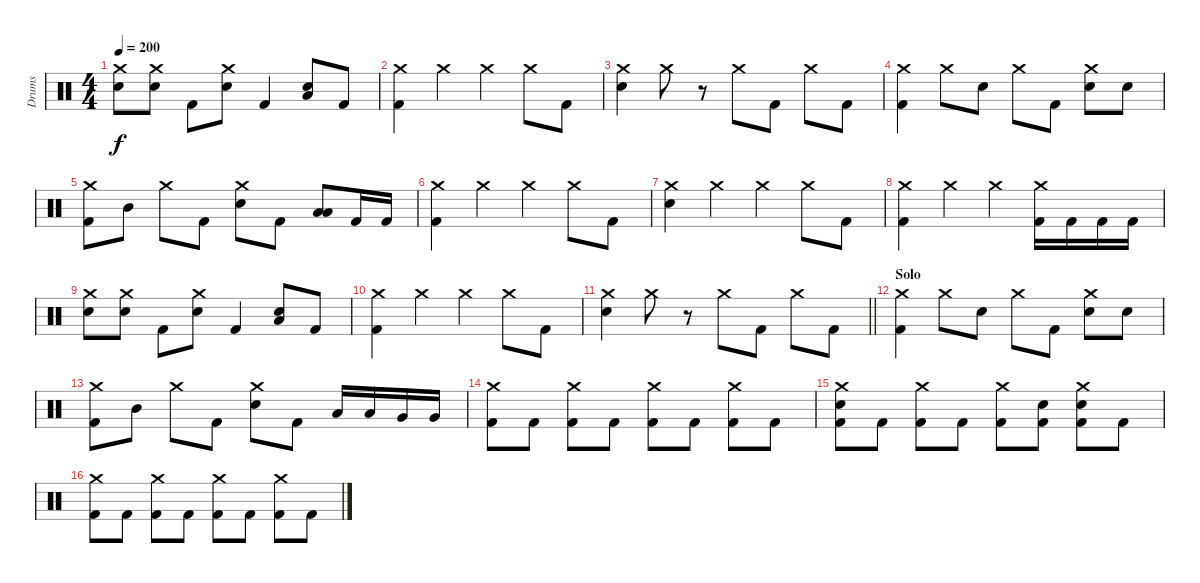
\track ("Drums" "Drums") {instrument percussion}
\staff {score}
\articulation defaults
\ts (4 4)
\tempo 200
\clef neutral
\ks c
("Crash medium (hit)" "Electric Snare (hit)").8{dy f} ("Crash medium (hit)" "Electric Snare (hit)").8 "Kick (hit) 2".8 ("Crash medium (hit)" "Electric Snare (hit)").8 "Kick (hit) 2".4 ("Low Floor Tom (hit)" "Electric Snare (hit)").8 "Kick (hit) 2".8 |
("Crash medium (hit)" "Kick (hit) 2").4 "Crash medium (hit)".4 "Crash medium (hit)".4 "Crash medium (hit)".8 "Kick (hit) 2".8 |
("Crash medium (hit)" "Electric Snare (hit)").4 "Crash medium (hit)".8 r.8 "Crash medium (hit)".8 "Kick (hit) 2".8 "Crash medium (hit)".8 "Kick (hit) 2".8 |
("Crash medium (hit)" "Kick (hit) 2").4 "Crash medium (hit)".8 "Electric Snare (hit)".8 "Crash medium (hit)".8 "Kick (hit) 2".8 ("Crash medium (hit)" "Electric Snare (hit)").8 "Electric Snare (hit)".8 |
("Crash medium (hit)" "Kick (hit) 2").8 "Mid Tom (hit)".8 "Crash medium (hit)".8 "Kick (hit) 2".8 ("Crash medium (hit)" "Electric Snare (hit)").8 "Kick (hit) 2".8 ("Low Tom (hit)" "Low Floor Tom (hit)").8 "Kick (hit) 2".16 "Kick (hit) 2".16 |
("Crash medium (hit)" "Kick (hit) 2").4 "Crash medium (hit)".4 "Crash medium (hit)".4 "Crash medium (hit)".8 "Kick (hit) 2".8 |
("Crash medium (hit)" "Electric Snare (hit)").4 "Crash medium (hit)".4 "Crash medium (hit)".4 "Crash medium (hit)".8 "Kick (hit) 2".8 |
("Crash medium (hit)" "Kick (hit) 2").4 "Crash medium (hit)".4 "Crash medium (hit)".4 ("Crash medium (hit)" "Kick (hit) 2").16 "Kick (hit) 2".16 "Kick (hit) 2".16 "Kick (hit) 2".16 |
("Crash medium (hit)" "Electric Snare (hit)").8 ("Crash medium (hit)" "Electric Snare (hit)").8 "Kick (hit) 2".8 ("Crash medium (hit)" "Electric Snare (hit)").8 "Kick (hit) 2".4 ("Low Floor Tom (hit)" "Electric Snare (hit)").8 "Kick (hit) 2".8 |
("Crash medium (hit)" "Kick (hit) 2").4 "Crash medium (hit)".4 "Crash medium (hit)".4 "Crash medium (hit)".8 "Kick (hit) 2".8 |
\barLineRight lightlight
("Crash medium (hit)" "Electric Snare (hit)").4 "Crash medium (hit)".8 r.8 "Crash medium (hit)".8 "Kick (hit) 2".8 "Crash medium (hit)".8 "Kick (hit) 2".8 |
\section ("" "Solo")
("Crash medium (hit)" "Kick (hit) 2").4 "Crash medium (hit)".8 "Electric Snare (hit)".8 "Crash medium (hit)".8 "Kick (hit) 2".8 ("Crash medium (hit)" "Electric Snare (hit)").8 "Electric Snare (hit)".8 |
("Crash medium (hit)" "Kick (hit) 2").8 "Mid Tom (hit)".8 "Crash medium (hit)".8 "Kick (hit) 2".8 ("Crash medium (hit)" "Electric Snare (hit)").8 "Kick (hit) 2".8 "Low Tom (hit)".16 "Low Tom (hit)".16 "Very Low Tom (hit)".16 "Very Low Tom (hit)".16 |
("Crash medium (hit)" "Kick (hit) 2").8 "Kick (hit) 2".8 ("Crash medium (hit)" "Kick (hit) 2").8 "Kick (hit) 2".8 ("Crash medium (hit)" "Kick (hit) 2").8 "Kick (hit) 2".8 ("Crash medium (hit)" "Kick (hit) 2").8 "Kick (hit) 2".8 |
("Crash medium (hit)" "Electric Snare (hit)" "Kick (hit) 2").8 "Kick (hit) 2".8 ("Crash medium (hit)" "Kick (hit) 2").8 "Kick (hit) 2".8 ("Crash medium (hit)" "Kick (hit) 2").8 ("Electric Snare (hit)" "Kick (hit) 2").8 ("Crash medium (hit)" "Electric Snare (hit)" "Kick (hit) 2").8 "Kick (hit) 2".8 |
("Crash medium (hit)" "Kick (hit) 2").8 "Kick (hit) 2".8 ("Crash medium (hit)" "Kick (hit) 2").8 "Kick (hit) 2".8 ("Crash medium (hit)" "Kick (hit) 2").8 "Kick (hit) 2".8 ("Crash medium (hit)" "Kick (hit) 2").8 "Kick (hit) 2".8
